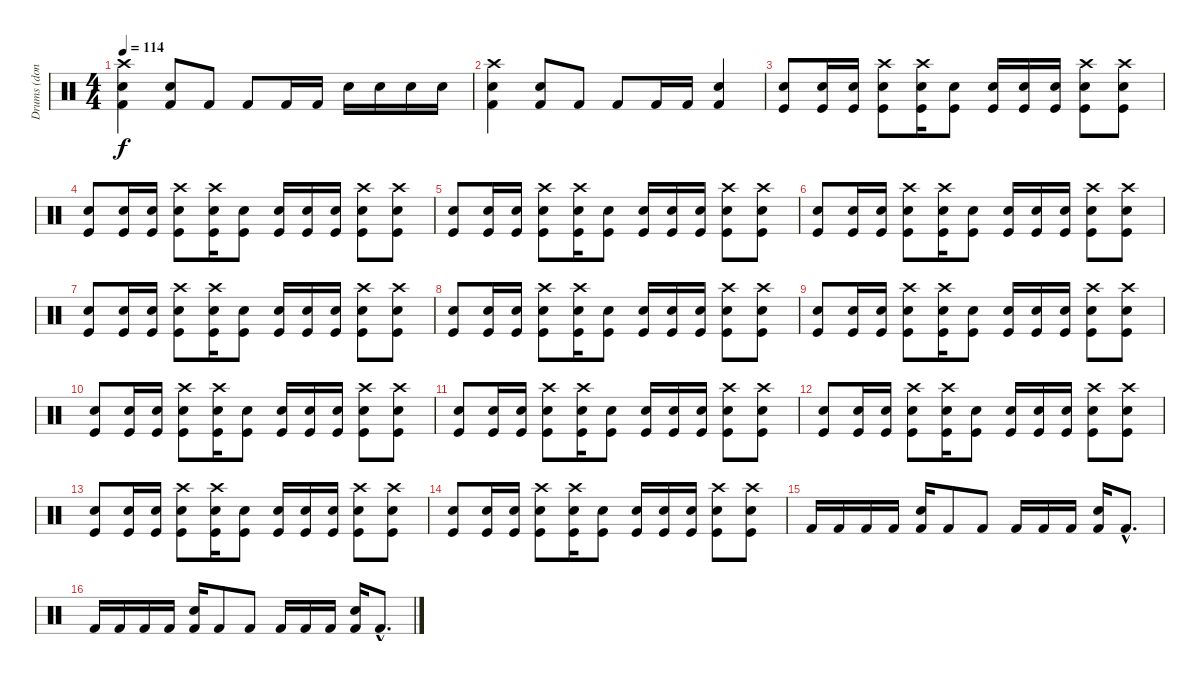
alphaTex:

\track ("Drums (done badly)" "Drums (don") {instrument percussion}
\staff {score}
\articulation defaults
\ts (4 4)
\tempo 114
\clef neutral
\ks c
("Crash high (hit)" "Snare (hit) 2" "Kick (hit) 2").4{dy f} ("Snare (hit) 2" "Kick (hit) 2").8 "Kick (hit) 2".8 "Kick (hit) 2".8 "Kick (hit) 2".16 "Kick (hit) 2".16 "Snare (hit) 2".16 "Snare (hit) 2".16 "Snare (hit) 2".16 "Snare (hit) 2".16 |
("Crash high (hit)" "Snare (hit) 2" "Kick (hit) 2").4 ("Snare (hit) 2" "Kick (hit) 2").8 "Kick (hit) 2".8 "Kick (hit) 2".8 "Kick (hit) 2".16 "Kick (hit) 2".16 ("Snare (hit) 2" "Kick (hit) 2").4 |
("Snare (hit) 2" "Kick (hit)").8 ("Snare (hit) 2" "Kick (hit)").16 ("Snare (hit) 2" "Kick (hit)").16 ("Crash high (hit)" "Snare (hit) 2" "Kick (hit)").8 ("Crash high (hit)" "Snare (hit) 2" "Kick (hit)").16 ("Snare (hit) 2" "Kick (hit)").8 ("Snare (hit) 2" "Kick (hit)").16 ("Snare (hit) 2" "Kick (hit)").16 ("Snare (hit) 2" "Kick (hit)").16 ("Crash high (hit)" "Snare (hit) 2" "Kick (hit)").8 ("Crash high (hit)" "Snare (hit) 2" "Kick (hit)").8 |
("Snare (hit) 2" "Kick (hit)").8 ("Snare (hit) 2" "Kick (hit)").16 ("Snare (hit) 2" "Kick (hit)").16 ("Crash high (hit)" "Snare (hit) 2" "Kick (hit)").8 ("Crash high (hit)" "Snare (hit) 2" "Kick (hit)").16 ("Snare (hit) 2" "Kick (hit)").8 ("Snare (hit) 2" "Kick (hit)").16 ("Snare (hit) 2" "Kick (hit)").16 ("Snare (hit) 2" "Kick (hit)").16 ("Crash high (hit)" "Snare (hit) 2" "Kick (hit)").8 ("Crash high (hit)" "Snare (hit) 2" "Kick (hit)").8 |
("Snare (hit) 2" "Kick (hit)").8 ("Snare (hit) 2" "Kick (hit)").16 ("Snare (hit) 2" "Kick (hit)").16 ("Crash high (hit)" "Snare (hit) 2" "Kick (hit)").8 ("Crash high (hit)" "Snare (hit) 2" "Kick (hit)").16 ("Snare (hit) 2" "Kick (hit)").8 ("Snare (hit) 2" "Kick (hit)").16 ("Snare (hit) 2" "Kick (hit)").16 ("Snare (hit) 2" "Kick (hit)").16 ("Crash high (hit)" "Snare (hit) 2" "Kick (hit)").8 ("Crash high (hit)" "Snare (hit) 2" "Kick (hit)").8 |
("Snare (hit) 2" "Kick (hit)").8 ("Snare (hit) 2" "Kick (hit)").16 ("Snare (hit) 2" "Kick (hit)").16 ("Crash high (hit)" "Snare (hit) 2" "Kick (hit)").8 ("Crash high (hit)" "Snare (hit) 2" "Kick (hit)").16 ("Snare (hit) 2" "Kick (hit)").8 ("Snare (hit) 2" "Kick (hit)").16 ("Snare (hit) 2" "Kick (hit)").16 ("Snare (hit) 2" "Kick (hit)").16 ("Crash high (hit)" "Snare (hit) 2" "Kick (hit)").8 ("Crash high (hit)" "Snare (hit) 2" "Kick (hit)").8 |
("Snare (hit) 2" "Kick (hit)").8 ("Snare (hit) 2" "Kick (hit)").16 ("Snare (hit) 2" "Kick (hit)").16 ("Crash high (hit)" "Snare (hit) 2" "Kick (hit)").8 ("Crash high (hit)" "Snare (hit) 2" "Kick (hit)").16 ("Snare (hit) 2" "Kick (hit)").8 ("Snare (hit) 2" "Kick (hit)").16 ("Snare (hit) 2" "Kick (hit)").16 ("Snare (hit) 2" "Kick (hit)").16 ("Crash high (hit)" "Snare (hit) 2" "Kick (hit)").8 ("Crash high (hit)" "Snare (hit) 2" "Kick (hit)").8 |
("Snare (hit) 2" "Kick (hit)").8 ("Snare (hit) 2" "Kick (hit)").16 ("Snare (hit) 2" "Kick (hit)").16 ("Crash high (hit)" "Snare (hit) 2" "Kick (hit)").8 ("Crash high (hit)" "Snare (hit) 2" "Kick (hit)").16 ("Snare (hit) 2" "Kick (hit)").8 ("Snare (hit) 2" "Kick (hit)").16 ("Snare (hit) 2" "Kick (hit)").16 ("Snare (hit) 2" "Kick (hit)").16 ("Crash high (hit)" "Snare (hit) 2" "Kick (hit)").8 ("Crash high (hit)" "Snare (hit) 2" "Kick (hit)").8 |
("Snare (hit) 2" "Kick (hit)").8 ("Snare (hit) 2" "Kick (hit)").16 ("Snare (hit) 2" "Kick (hit)").16 ("Crash high (hit)" "Snare (hit) 2" "Kick (hit)").8 ("Crash high (hit)" "Snare (hit) 2" "Kick (hit)").16 ("Snare (hit) 2" "Kick (hit)").8 ("Snare (hit) 2" "Kick (hit)").16 ("Snare (hit) 2" "Kick (hit)").16 ("Snare (hit) 2" "Kick (hit)").16 ("Crash high (hit)" "Snare (hit) 2" "Kick (hit)").8 ("Crash high (hit)" "Snare (hit) 2" "Kick (hit)").8 |
("Snare (hit) 2" "Kick (hit)").8 ("Snare (hit) 2" "Kick (hit)").16 ("Snare (hit) 2" "Kick (hit)").16 ("Crash high (hit)" "Snare (hit) 2" "Kick (hit)").8 ("Crash high (hit)" "Snare (hit) 2" "Kick (hit)").16 ("Snare (hit) 2" "Kick (hit)").8 ("Snare (hit) 2" "Kick (hit)").16 ("Snare (hit) 2" "Kick (hit)").16 ("Snare (hit) 2" "Kick (hit)").16 ("Crash high (hit)" "Snare (hit) 2" "Kick (hit)").8 ("Crash high (hit)" "Snare (hit) 2" "Kick (hit)").8 |
("Snare (hit) 2" "Kick (hit)").8 ("Snare (hit) 2" "Kick (hit)").16 ("Snare (hit) 2" "Kick (hit)").16 ("Crash high (hit)" "Snare (hit) 2" "Kick (hit)").8 ("Crash high (hit)" "Snare (hit) 2" "Kick (hit)").16 ("Snare (hit) 2" "Kick (hit)").8 ("Snare (hit) 2" "Kick (hit)").16 ("Snare (hit) 2" "Kick (hit)").16 ("Snare (hit) 2" "Kick (hit)").16 ("Crash high (hit)" "Snare (hit) 2" "Kick (hit)").8 ("Crash high (hit)" "Snare (hit) 2" "Kick (hit)").8 |
("Snare (hit) 2" "Kick (hit)").8 ("Snare (hit) 2" "Kick (hit)").16 ("Snare (hit) 2" "Kick (hit)").16 ("Crash high (hit)" "Snare (hit) 2" "Kick (hit)").8 ("Crash high (hit)" "Snare (hit) 2" "Kick (hit)").16 ("Snare (hit) 2" "Kick (hit)").8 ("Snare (hit) 2" "Kick (hit)").16 ("Snare (hit) 2" "Kick (hit)").16 ("Snare (hit) 2" "Kick (hit)").16 ("Crash high (hit)" "Snare (hit) 2" "Kick (hit)").8 ("Crash high (hit)" "Snare (hit) 2" "Kick (hit)").8 |
("Snare (hit) 2" "Kick (hit)").8 ("Snare (hit) 2" "Kick (hit)").16 ("Snare (hit) 2" "Kick (hit)").16 ("Crash high (hit)" "Snare (hit) 2" "Kick (hit)").8 ("Crash high (hit)" "Snare (hit) 2" "Kick (hit)").16 ("Snare (hit) 2" "Kick (hit)").8 ("Snare (hit) 2" "Kick (hit)").16 ("Snare (hit) 2" "Kick (hit)").16 ("Snare (hit) 2" "Kick (hit)").16 ("Crash high (hit)" "Snare (hit) 2" "Kick (hit)").8 ("Crash high (hit)" "Snare (hit) 2" "Kick (hit)").8 |
("Snare (hit) 2" "Kick (hit)").8 ("Snare (hit) 2" "Kick (hit)").16 ("Snare (hit) 2" "Kick (hit)").16 ("Crash high (hit)" "Snare (hit) 2" "Kick (hit)").8 ("Crash high (hit)" "Snare (hit) 2" "Kick (hit)").16 ("Snare (hit) 2" "Kick (hit)").8 ("Snare (hit) 2" "Kick (hit)").16 ("Snare (hit) 2" "Kick (hit)").16 ("Snare (hit) 2" "Kick (hit)").16 ("Crash high (hit)" "Snare (hit) 2" "Kick (hit)").8 ("Crash high (hit)" "Snare (hit) 2" "Kick (hit)").8 |
"Kick (hit) 2".16 "Kick (hit) 2".16 "Kick (hit) 2".16 "Kick (hit) 2".16 ("Snare (hit) 2" "Kick (hit) 2").16 "Kick (hit) 2".8 "Kick (hit) 2".8 "Kick (hit) 2".16 "Kick (hit) 2".16 "Kick (hit) 2".16 ("Snare (hit) 2" "Kick (hit) 2").16 "Kick (hit) 2"{hac}.8{d} |
"Kick (hit) 2".16 "Kick (hit) 2".16 "Kick (hit) 2".16 "Kick (hit) 2".16 ("Snare (hit) 2" "Kick (hit) 2").16 "Kick (hit) 2".8 "Kick (hit) 2".8 "Kick (hit) 2".16 "Kick (hit) 2".16 "Kick (hit) 2".16 ("Snare (hit) 2" "Kick (hit) 2").16 "Kick (hit) 2"{hac}.8{d}
